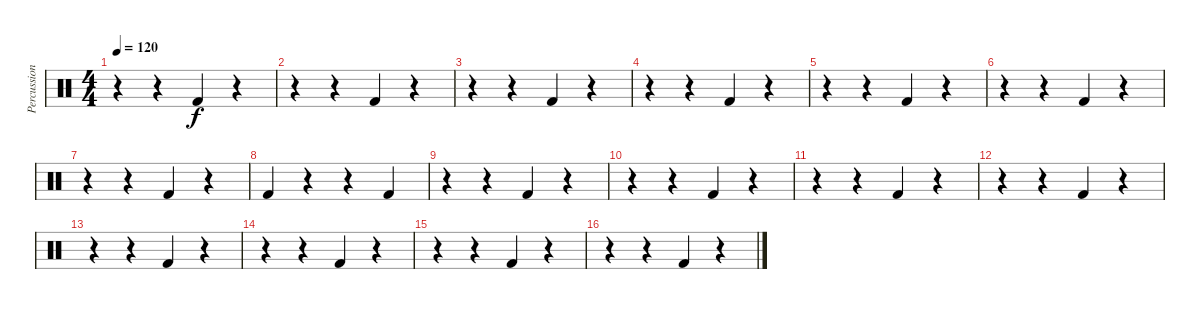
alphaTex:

\track ("Percussion II" "Percussion") {instrument percussion}
\staff {score}
\articulation defaults
\ts (4 4)
\tempo 120
\clef neutral
\ks aminor
r.4{dy f} r.4 "Kick (hit) 2".4 r.4 |
r.4 r.4 "Kick (hit) 2".4 r.4 |
r.4 r.4 "Kick (hit) 2".4 r.4 |
r.4 r.4 "Kick (hit) 2".4 r.4 |
r.4 r.4 "Kick (hit) 2".4 r.4 |
r.4 r.4 "Kick (hit) 2".4 r.4 |
r.4 r.4 "Kick (hit) 2".4 r.4 |
"Kick (hit) 2".4 r.4 r.4 "Kick (hit) 2".4 |
r.4 r.4 "Kick (hit) 2".4 r.4 |
r.4 r.4 "Kick (hit) 2".4 r.4 |
r.4 r.4 "Kick (hit) 2".4 r.4 |
r.4 r.4 "Kick (hit) 2".4 r.4 |
r.4 r.4 "Kick (hit) 2".4 r.4 |
r.4 r.4 "Kick (hit) 2".4 r.4 |
r.4 r.4 "Kick (hit) 2".4 r.4 |
r.4 r.4 "Kick (hit) 2".4 r.4
